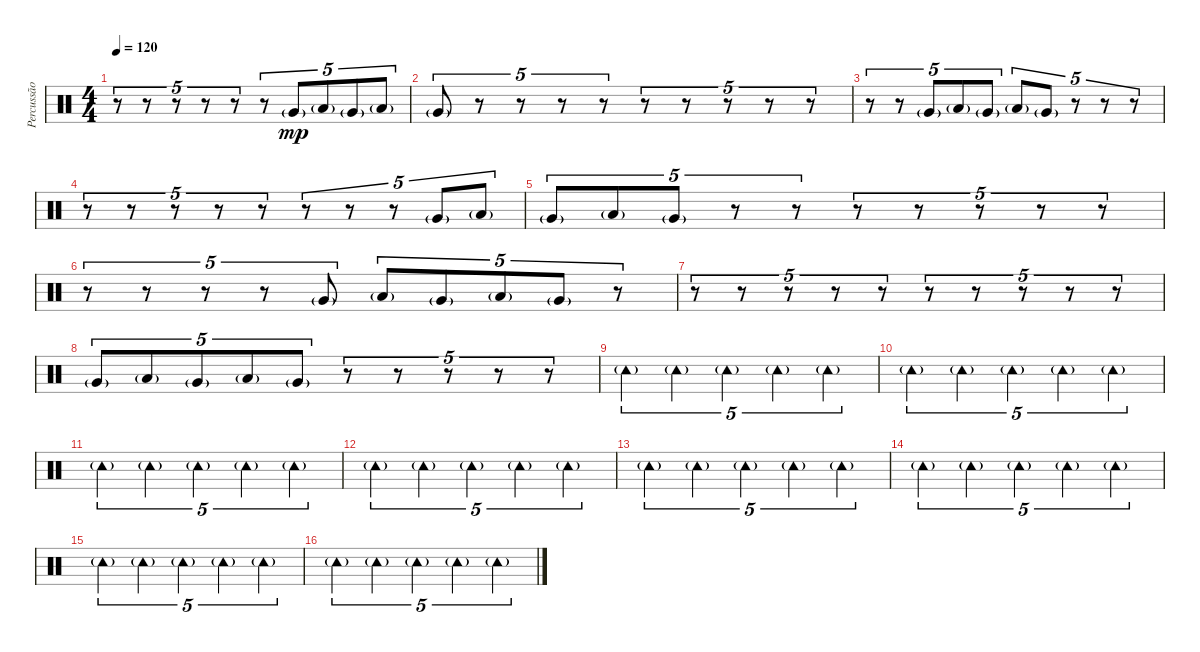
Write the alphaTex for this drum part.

\track ("Percussão" "Percussão") {instrument percussion}
\staff {score}
\articulation defaults
\ts (4 4)
\tempo 120
\clef neutral
\ks c
r.8{tu (5 4) dy mp} r.8{tu (5 4)} r.8{tu (5 4)} r.8{tu (5 4)} r.8{tu (5 4)} r.8{tu (5 4)} "Very Low Tom (hit)"{g}.8{tu (5 4)} "Low Tom (hit)"{g}.8{tu (5 4)} "Very Low Tom (hit)"{g}.8{tu (5 4)} "Low Tom (hit)"{g}.8{tu (5 4)} |
"Very Low Tom (hit)"{g}.8{tu (5 4)} r.8{tu (5 4)} r.8{tu (5 4)} r.8{tu (5 4)} r.8{tu (5 4)} r.8{tu (5 4)} r.8{tu (5 4)} r.8{tu (5 4)} r.8{tu (5 4)} r.8{tu (5 4)} |
r.8{tu (5 4)} r.8{tu (5 4)} "Very Low Tom (hit)"{g}.8{tu (5 4)} "Low Tom (hit)"{g}.8{tu (5 4)} "Very Low Tom (hit)"{g}.8{tu (5 4)} "Low Tom (hit)"{g}.8{tu (5 4)} "Very Low Tom (hit)"{g}.8{tu (5 4)} r.8{tu (5 4)} r.8{tu (5 4)} r.8{tu (5 4)} |
r.8{tu (5 4)} r.8{tu (5 4)} r.8{tu (5 4)} r.8{tu (5 4)} r.8{tu (5 4)} r.8{tu (5 4)} r.8{tu (5 4)} r.8{tu (5 4)} "Very Low Tom (hit)"{g}.8{tu (5 4)} "Low Tom (hit)"{g}.8{tu (5 4)} |
"Very Low Tom (hit)"{g}.8{tu (5 4)} "Low Tom (hit)"{g}.8{tu (5 4)} "Very Low Tom (hit)"{g}.8{tu (5 4)} r.8{tu (5 4)} r.8{tu (5 4)} r.8{tu (5 4)} r.8{tu (5 4)} r.8{tu (5 4)} r.8{tu (5 4)} r.8{tu (5 4)} |
r.8{tu (5 4)} r.8{tu (5 4)} r.8{tu (5 4)} r.8{tu (5 4)} "Very Low Tom (hit)"{g}.8{tu (5 4)} "Low Tom (hit)"{g}.8{tu (5 4)} "Very Low Tom (hit)"{g}.8{tu (5 4)} "Low Tom (hit)"{g}.8{tu (5 4)} "Very Low Tom (hit)"{g}.8{tu (5 4)} r.8{tu (5 4)} |
r.8{tu (5 4)} r.8{tu (5 4)} r.8{tu (5 4)} r.8{tu (5 4)} r.8{tu (5 4)} r.8{tu (5 4)} r.8{tu (5 4)} r.8{tu (5 4)} r.8{tu (5 4)} r.8{tu (5 4)} |
"Very Low Tom (hit)"{g}.8{tu (5 4)} "Low Tom (hit)"{g}.8{tu (5 4)} "Very Low Tom (hit)"{g}.8{tu (5 4)} "Low Tom (hit)"{g}.8{tu (5 4)} "Very Low Tom (hit)"{g}.8{tu (5 4)} r.8{tu (5 4)} r.8{tu (5 4)} r.8{tu (5 4)} r.8{tu (5 4)} r.8{tu (5 4)} |
"Tambourine (hit)"{g}.4{tu (5 4)} "Tambourine (hit)"{g}.4{tu (5 4)} "Tambourine (hit)"{g}.4{tu (5 4)} "Tambourine (hit)"{g}.4{tu (5 4)} "Tambourine (hit)"{g}.4{tu (5 4)} |
"Tambourine (hit)"{g}.4{tu (5 4)} "Tambourine (hit)"{g}.4{tu (5 4)} "Tambourine (hit)"{g}.4{tu (5 4)} "Tambourine (hit)"{g}.4{tu (5 4)} "Tambourine (hit)"{g}.4{tu (5 4)} |
"Tambourine (hit)"{g}.4{tu (5 4)} "Tambourine (hit)"{g}.4{tu (5 4)} "Tambourine (hit)"{g}.4{tu (5 4)} "Tambourine (hit)"{g}.4{tu (5 4)} "Tambourine (hit)"{g}.4{tu (5 4)} |
"Tambourine (hit)"{g}.4{tu (5 4)} "Tambourine (hit)"{g}.4{tu (5 4)} "Tambourine (hit)"{g}.4{tu (5 4)} "Tambourine (hit)"{g}.4{tu (5 4)} "Tambourine (hit)"{g}.4{tu (5 4)} |
"Tambourine (hit)"{g}.4{tu (5 4)} "Tambourine (hit)"{g}.4{tu (5 4)} "Tambourine (hit)"{g}.4{tu (5 4)} "Tambourine (hit)"{g}.4{tu (5 4)} "Tambourine (hit)"{g}.4{tu (5 4)} |
"Tambourine (hit)"{g}.4{tu (5 4)} "Tambourine (hit)"{g}.4{tu (5 4)} "Tambourine (hit)"{g}.4{tu (5 4)} "Tambourine (hit)"{g}.4{tu (5 4)} "Tambourine (hit)"{g}.4{tu (5 4)} |
"Tambourine (hit)"{g}.4{tu (5 4)} "Tambourine (hit)"{g}.4{tu (5 4)} "Tambourine (hit)"{g}.4{tu (5 4)} "Tambourine (hit)"{g}.4{tu (5 4)} "Tambourine (hit)"{g}.4{tu (5 4)} |
"Tambourine (hit)"{g}.4{tu (5 4)} "Tambourine (hit)"{g}.4{tu (5 4)} "Tambourine (hit)"{g}.4{tu (5 4)} "Tambourine (hit)"{g}.4{tu (5 4)} "Tambourine (hit)"{g}.4{tu (5 4)}
